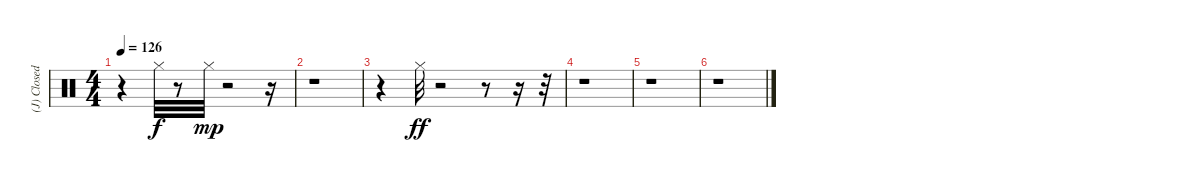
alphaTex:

\track ("(J) Closed Hi Hat" "(J) Closed") {instrument percussion}
\staff {score}
\articulation defaults
\ts (4 4)
\tempo 126
\clef neutral
\ks c
r.4{dy mp} "Hi-Hat (closed)".32{dy f} r.8 "Hi-Hat (closed)".32{dy mp} r.2 r.16 |
r.1 |
r.4 "Hi-Hat (closed)".32{dy ff} r.2 r.8 r.16 r.32 |
r.1 |
r.1 |
r.1
